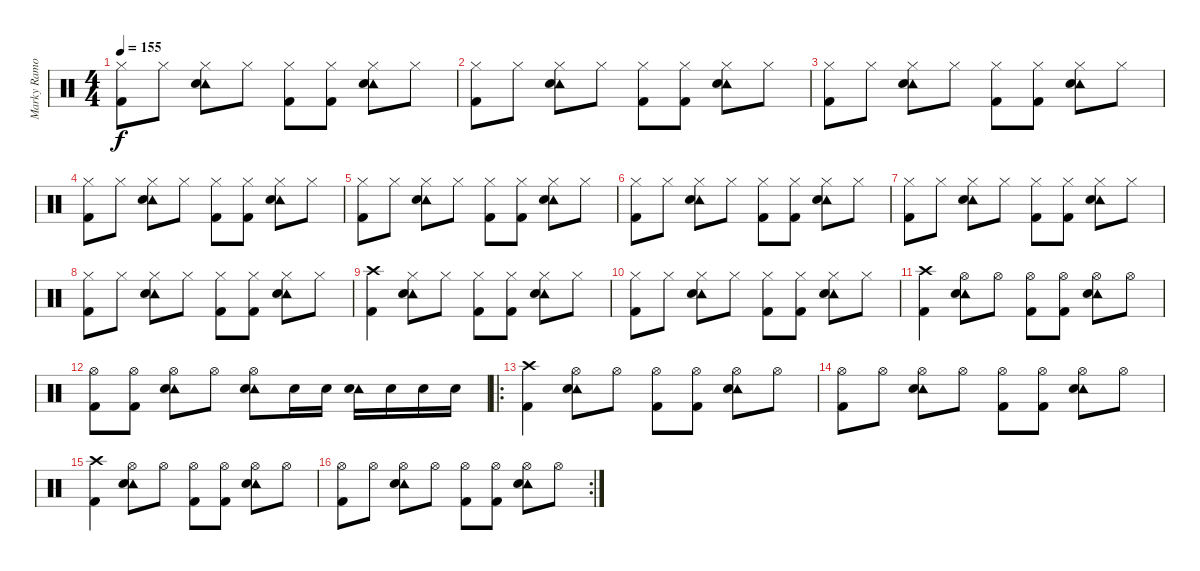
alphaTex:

\track ("Marky Ramone" "Marky Ramo") {instrument percussion}
\staff {score}
\articulation defaults
\ts (4 4)
\tempo 155
\clef neutral
\ks c
("Kick (hit) 2" "Hi-Hat (closed)").8{dy f} "Hi-Hat (closed)".8 ("Tambourine (hit)" "Electric Snare (hit)" "Hi-Hat (closed)").8 "Hi-Hat (closed)".8 ("Kick (hit) 2" "Hi-Hat (closed)").8 ("Kick (hit) 2" "Hi-Hat (closed)").8 ("Tambourine (hit)" "Electric Snare (hit)" "Hi-Hat (closed)").8 "Hi-Hat (closed)".8 |
("Kick (hit) 2" "Hi-Hat (closed)").8 "Hi-Hat (closed)".8 ("Tambourine (hit)" "Electric Snare (hit)" "Hi-Hat (closed)").8 "Hi-Hat (closed)".8 ("Kick (hit) 2" "Hi-Hat (closed)").8 ("Kick (hit) 2" "Hi-Hat (closed)").8 ("Tambourine (hit)" "Electric Snare (hit)" "Hi-Hat (closed)").8 "Hi-Hat (closed)".8 |
("Kick (hit) 2" "Hi-Hat (closed)").8 "Hi-Hat (closed)".8 ("Tambourine (hit)" "Electric Snare (hit)" "Hi-Hat (closed)").8 "Hi-Hat (closed)".8 ("Kick (hit) 2" "Hi-Hat (closed)").8 ("Kick (hit) 2" "Hi-Hat (closed)").8 ("Tambourine (hit)" "Electric Snare (hit)" "Hi-Hat (closed)").8 "Hi-Hat (closed)".8 |
("Kick (hit) 2" "Hi-Hat (closed)").8 "Hi-Hat (closed)".8 ("Tambourine (hit)" "Electric Snare (hit)" "Hi-Hat (closed)").8 "Hi-Hat (closed)".8 ("Kick (hit) 2" "Hi-Hat (closed)").8 ("Kick (hit) 2" "Hi-Hat (closed)").8 ("Tambourine (hit)" "Electric Snare (hit)" "Hi-Hat (closed)").8 "Hi-Hat (closed)".8 |
("Kick (hit) 2" "Hi-Hat (closed)").8 "Hi-Hat (closed)".8 ("Tambourine (hit)" "Electric Snare (hit)" "Hi-Hat (closed)").8 "Hi-Hat (closed)".8 ("Kick (hit) 2" "Hi-Hat (closed)").8 ("Kick (hit) 2" "Hi-Hat (closed)").8 ("Tambourine (hit)" "Electric Snare (hit)" "Hi-Hat (closed)").8 "Hi-Hat (closed)".8 |
("Kick (hit) 2" "Hi-Hat (closed)").8 "Hi-Hat (closed)".8 ("Tambourine (hit)" "Electric Snare (hit)" "Hi-Hat (closed)").8 "Hi-Hat (closed)".8 ("Kick (hit) 2" "Hi-Hat (closed)").8 ("Kick (hit) 2" "Hi-Hat (closed)").8 ("Tambourine (hit)" "Electric Snare (hit)" "Hi-Hat (closed)").8 "Hi-Hat (closed)".8 |
("Kick (hit) 2" "Hi-Hat (closed)").8 "Hi-Hat (closed)".8 ("Tambourine (hit)" "Electric Snare (hit)" "Hi-Hat (closed)").8 "Hi-Hat (closed)".8 ("Kick (hit) 2" "Hi-Hat (closed)").8 ("Kick (hit) 2" "Hi-Hat (closed)").8 ("Tambourine (hit)" "Electric Snare (hit)" "Hi-Hat (closed)").8 "Hi-Hat (closed)".8 |
("Kick (hit) 2" "Hi-Hat (closed)").8 "Hi-Hat (closed)".8 ("Tambourine (hit)" "Electric Snare (hit)" "Hi-Hat (closed)").8 "Hi-Hat (closed)".8 ("Kick (hit) 2" "Hi-Hat (closed)").8 ("Kick (hit) 2" "Hi-Hat (closed)").8 ("Tambourine (hit)" "Electric Snare (hit)" "Hi-Hat (closed)").8 "Hi-Hat (closed)".8 |
("Kick (hit) 2" "Crash high (hit)").4 ("Tambourine (hit)" "Electric Snare (hit)" "Hi-Hat (closed)").8 "Hi-Hat (closed)".8 ("Kick (hit) 2" "Hi-Hat (closed)").8 ("Kick (hit) 2" "Hi-Hat (closed)").8 ("Tambourine (hit)" "Electric Snare (hit)" "Hi-Hat (closed)").8 "Hi-Hat (closed)".8 |
("Kick (hit) 2" "Hi-Hat (closed)").8 "Hi-Hat (closed)".8 ("Tambourine (hit)" "Electric Snare (hit)" "Hi-Hat (closed)").8 "Hi-Hat (closed)".8 ("Kick (hit) 2" "Hi-Hat (closed)").8 ("Kick (hit) 2" "Hi-Hat (closed)").8 ("Tambourine (hit)" "Electric Snare (hit)" "Hi-Hat (closed)").8 "Hi-Hat (closed)".8 |
("Kick (hit) 2" "Crash high (hit)").4 ("Tambourine (hit)" "Electric Snare (hit)" "Hi-Hat (open)").8 "Hi-Hat (open)".8 ("Kick (hit) 2" "Hi-Hat (open)").8 ("Kick (hit) 2" "Hi-Hat (open)").8 ("Tambourine (hit)" "Electric Snare (hit)" "Hi-Hat (open)").8 "Hi-Hat (open)".8 |
("Kick (hit) 2" "Hi-Hat (open)").8 ("Kick (hit) 2" "Hi-Hat (open)").8 ("Tambourine (hit)" "Electric Snare (hit)" "Hi-Hat (open)").8 "Hi-Hat (open)".8 ("Tambourine (hit)" "Electric Snare (hit)" "Hi-Hat (open)").8 "Electric Snare (hit)".16 "Electric Snare (hit)".16 ("Tambourine (hit)" "Electric Snare (hit)").16 "Electric Snare (hit)".16 "Electric Snare (hit)".16 "Electric Snare (hit)".16 |
\ro
("Kick (hit) 2" "Crash high (hit)").4 ("Tambourine (hit)" "Electric Snare (hit)" "Hi-Hat (open)").8 "Hi-Hat (open)".8 ("Kick (hit) 2" "Hi-Hat (open)").8 ("Kick (hit) 2" "Hi-Hat (open)").8 ("Tambourine (hit)" "Electric Snare (hit)" "Hi-Hat (open)").8 "Hi-Hat (open)".8 |
("Kick (hit) 2" "Hi-Hat (open)").8 "Hi-Hat (open)".8 ("Tambourine (hit)" "Electric Snare (hit)" "Hi-Hat (open)").8 "Hi-Hat (open)".8 ("Kick (hit) 2" "Hi-Hat (open)").8 ("Kick (hit) 2" "Hi-Hat (open)").8 ("Tambourine (hit)" "Electric Snare (hit)" "Hi-Hat (open)").8 "Hi-Hat (open)".8 |
("Kick (hit) 2" "Crash high (hit)").4 ("Tambourine (hit)" "Electric Snare (hit)" "Hi-Hat (open)").8 "Hi-Hat (open)".8 ("Kick (hit) 2" "Hi-Hat (open)").8 ("Kick (hit) 2" "Hi-Hat (open)").8 ("Tambourine (hit)" "Electric Snare (hit)" "Hi-Hat (open)").8 "Hi-Hat (open)".8 |
\rc 2
("Kick (hit) 2" "Hi-Hat (open)").8 "Hi-Hat (open)".8 ("Tambourine (hit)" "Electric Snare (hit)" "Hi-Hat (open)").8 "Hi-Hat (open)".8 ("Kick (hit) 2" "Hi-Hat (open)").8 ("Kick (hit) 2" "Hi-Hat (open)").8 ("Tambourine (hit)" "Electric Snare (hit)" "Hi-Hat (open)").8 "Hi-Hat (open)".8
